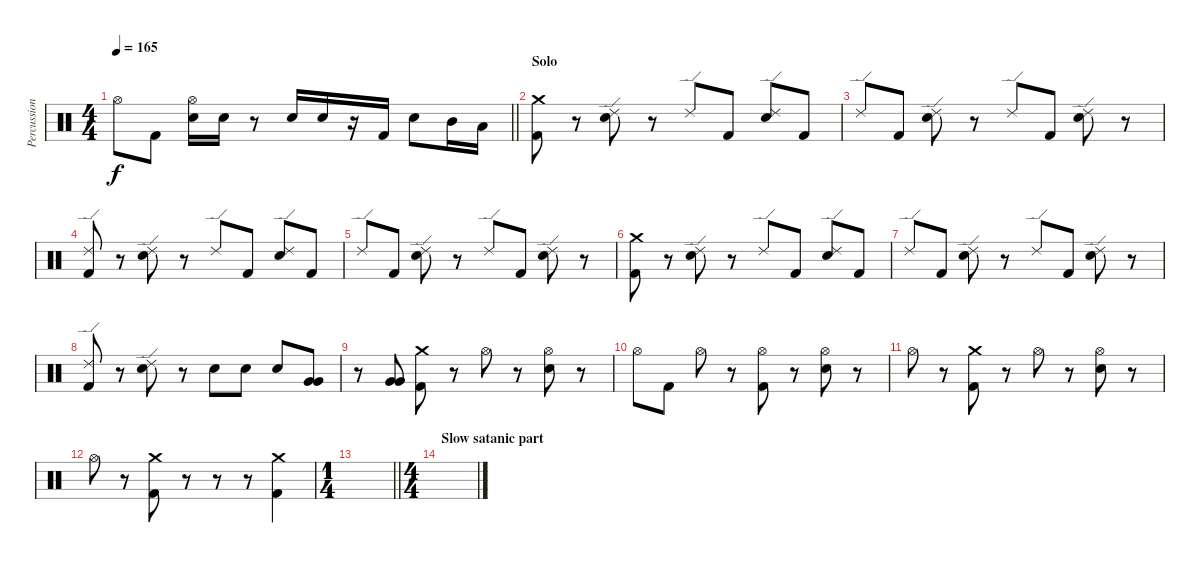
\track ("Percussion" "Percussion") {instrument percussion}
\staff {score}
\articulation defaults
\ts (4 4)
\tempo 165
\clef neutral
\barLineRight lightlight
\ks c "Hi-Hat (open)".8{dy f} "Kick (hit) 2".8
("Hi-Hat (open)" "Electric Snare (hit)").16 "Electric Snare (hit)".16 r.8 "Electric Snare (hit)".16 "Electric Snare (hit)".16 r.16 "Kick (hit) 2".16 "Electric Snare (hit)".8 "Mid Tom (hit)".16 "Low Tom (hit)".16 |
\section ("" "Solo")
("Crash medium (hit)" "Kick (hit) 2").8 r.8 ("Ride (edge) 2" "Electric Snare (hit)").8 r.8 "Ride (edge) 2".8 "Kick (hit) 2".8 ("Ride (edge) 2" "Electric Snare (hit)").8 "Kick (hit) 2".8 |
"Ride (edge) 2".8 "Kick (hit) 2".8 ("Ride (edge) 2" "Electric Snare (hit)").8 r.8 "Ride (edge) 2".8 "Kick (hit) 2".8 ("Ride (edge) 2" "Electric Snare (hit)").8 r.8 |
("Ride (edge) 2" "Kick (hit) 2").8 r.8 ("Ride (edge) 2" "Electric Snare (hit)").8 r.8 "Ride (edge) 2".8 "Kick (hit) 2".8 ("Ride (edge) 2" "Electric Snare (hit)").8 "Kick (hit) 2".8 |
"Ride (edge) 2".8 "Kick (hit) 2".8 ("Ride (edge) 2" "Electric Snare (hit)").8 r.8 "Ride (edge) 2".8 "Kick (hit) 2".8 ("Ride (edge) 2" "Electric Snare (hit)").8 r.8 |
("Crash medium (hit)" "Kick (hit) 2").8 r.8 ("Ride (edge) 2" "Electric Snare (hit)").8 r.8 "Ride (edge) 2".8 "Kick (hit) 2".8 ("Ride (edge) 2" "Electric Snare (hit)").8 "Kick (hit) 2".8 |
"Ride (edge) 2".8 "Kick (hit) 2".8 ("Ride (edge) 2" "Electric Snare (hit)").8 r.8 "Ride (edge) 2".8 "Kick (hit) 2".8 ("Ride (edge) 2" "Electric Snare (hit)").8 r.8 |
("Ride (edge) 2" "Kick (hit) 2").8 r.8 ("Ride (edge) 2" "Electric Snare (hit)").8 r.8 "Electric Snare (hit)".8 "Electric Snare (hit)".8 "Electric Snare (hit)".8 ("Very Low Tom (hit)" "Very Low Tom (hit)").8 |
r.8 ("Very Low Tom (hit)" "Very Low Tom (hit)").8 ("Crash medium (hit)" "Kick (hit) 2").8 r.8 "Hi-Hat (open)".8 r.8 ("Hi-Hat (open)" "Electric Snare (hit)").8 r.8 |
"Hi-Hat (open)".8 "Kick (hit) 2".8 "Hi-Hat (open)".8 r.8 ("Hi-Hat (open)" "Kick (hit) 2").8 r.8 ("Hi-Hat (open)" "Electric Snare (hit)").8 r.8 |
"Hi-Hat (open)".8 r.8 ("Crash medium (hit)" "Kick (hit) 2").8 r.8 "Hi-Hat (open)".8 r.8 ("Hi-Hat (open)" "Electric Snare (hit)").8 r.8 |
"Hi-Hat (open)".8 r.8 ("Crash medium (hit)" "Kick (hit) 2").8 r.8 r.8 r.8 ("Crash medium (hit)" "Kick (hit) 2").4 |
\ts (1 4)
\barLineRight lightlight
|
\ts (4 4)
\section ("" "Slow satanic part")
